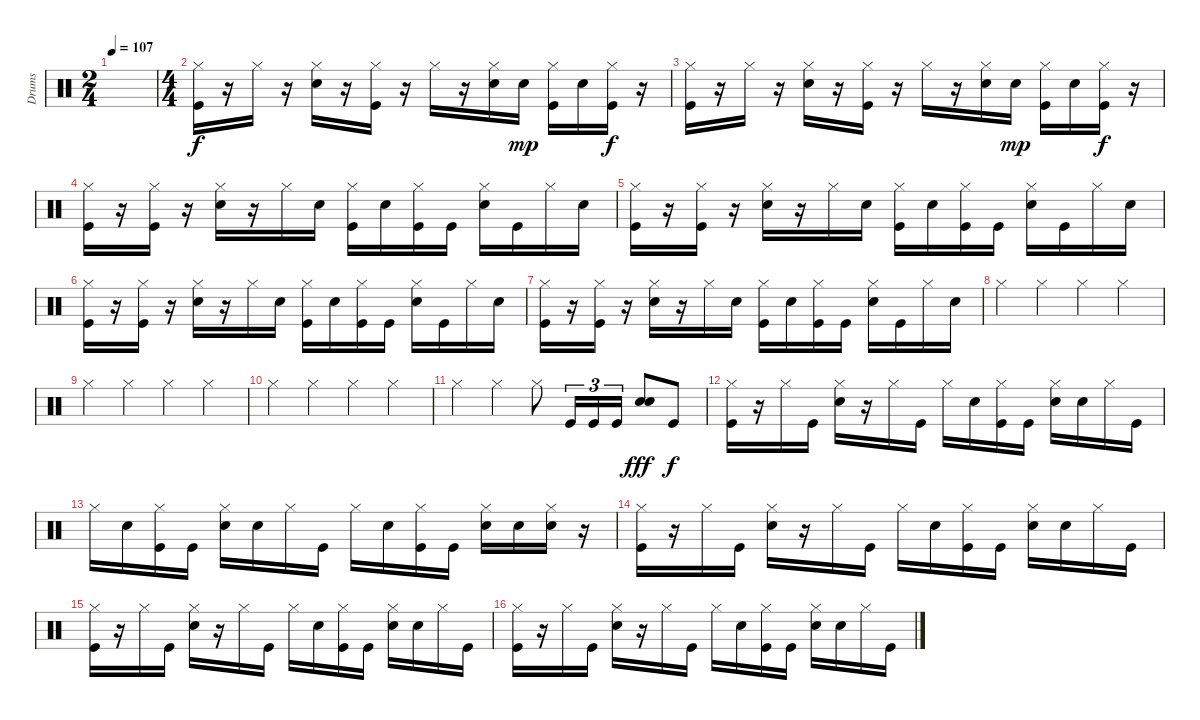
\track ("Drums" "Drums") {instrument percussion}
\staff {score}
\articulation defaults
\ts (2 4)
\tempo 107
\clef neutral
\ks c
|
\ts (4 4)
("Hi-Hat (closed)" "Kick (hit)").16 r.16 "Hi-Hat (closed)".16 r.16 ("Hi-Hat (closed)" "Snare (hit) 2").16 r.16 ("Hi-Hat (closed)" "Kick (hit)").16 r.16 "Hi-Hat (closed)".16 r.16 ("Hi-Hat (closed)" "Snare (hit) 2").16 "Snare (hit) 2".16{dy mp} ("Hi-Hat (closed)" "Kick (hit)").16 "Snare (hit) 2".16 ("Hi-Hat (closed)" "Kick (hit)").16{dy f} r.16 |
("Hi-Hat (closed)" "Kick (hit)").16 r.16 "Hi-Hat (closed)".16 r.16 ("Hi-Hat (closed)" "Snare (hit) 2").16 r.16 ("Hi-Hat (closed)" "Kick (hit)").16 r.16 "Hi-Hat (closed)".16 r.16 ("Hi-Hat (closed)" "Snare (hit) 2").16 "Snare (hit) 2".16{dy mp} ("Hi-Hat (closed)" "Kick (hit)").16 "Snare (hit) 2".16 ("Hi-Hat (closed)" "Kick (hit)").16{dy f} r.16 |
("Hi-Hat (closed)" "Kick (hit)").16 r.16 ("Hi-Hat (closed)" "Kick (hit)").16 r.16 ("Hi-Hat (closed)" "Snare (hit) 2").16 r.16 "Hi-Hat (closed)".16 "Snare (hit) 2".16 ("Hi-Hat (closed)" "Kick (hit)").16 "Snare (hit) 2".16 ("Hi-Hat (closed)" "Kick (hit)").16 "Kick (hit)".16 ("Hi-Hat (closed)" "Snare (hit) 2").16 "Kick (hit)".16 "Hi-Hat (closed)".16 "Snare (hit) 2".16 |
("Hi-Hat (closed)" "Kick (hit)").16 r.16 ("Hi-Hat (closed)" "Kick (hit)").16 r.16 ("Hi-Hat (closed)" "Snare (hit) 2").16 r.16 "Hi-Hat (closed)".16 "Snare (hit) 2".16 ("Hi-Hat (closed)" "Kick (hit)").16 "Snare (hit) 2".16 ("Hi-Hat (closed)" "Kick (hit)").16 "Kick (hit)".16 ("Hi-Hat (closed)" "Snare (hit) 2").16 "Kick (hit)".16 "Hi-Hat (closed)".16 "Snare (hit) 2".16 |
("Hi-Hat (closed)" "Kick (hit)").16 r.16 ("Hi-Hat (closed)" "Kick (hit)").16 r.16 ("Hi-Hat (closed)" "Snare (hit) 2").16 r.16 "Hi-Hat (closed)".16 "Snare (hit) 2".16 ("Hi-Hat (closed)" "Kick (hit)").16 "Snare (hit) 2".16 ("Hi-Hat (closed)" "Kick (hit)").16 "Kick (hit)".16 ("Hi-Hat (closed)" "Snare (hit) 2").16 "Kick (hit)".16 "Hi-Hat (closed)".16 "Snare (hit) 2".16 |
("Hi-Hat (closed)" "Kick (hit)").16 r.16 ("Hi-Hat (closed)" "Kick (hit)").16 r.16 ("Hi-Hat (closed)" "Snare (hit) 2").16 r.16 "Hi-Hat (closed)".16 "Snare (hit) 2".16 ("Hi-Hat (closed)" "Kick (hit)").16 "Snare (hit) 2".16 ("Hi-Hat (closed)" "Kick (hit)").16 "Kick (hit)".16 ("Hi-Hat (closed)" "Snare (hit) 2").16 "Kick (hit)".16 "Hi-Hat (closed)".16 "Snare (hit) 2".16 |
"Hi-Hat (closed)".4 "Hi-Hat (closed)".4 "Hi-Hat (closed)".4 "Hi-Hat (closed)".4 |
"Hi-Hat (closed)".4 "Hi-Hat (closed)".4 "Hi-Hat (closed)".4 "Hi-Hat (closed)".4 |
"Hi-Hat (closed)".4 "Hi-Hat (closed)".4 "Hi-Hat (closed)".4 "Hi-Hat (closed)".4 |
"Hi-Hat (closed)".4 "Hi-Hat (closed)".4 "Hi-Hat (closed)".8 "Kick (hit)".16{tu (3 2)} "Kick (hit)".16{tu (3 2)} "Kick (hit)".16{tu (3 2)} ("Snare (hit) 2" "Snare (hit) 2").8{dy fff} "Kick (hit)".8{dy f} |
("Hi-Hat (closed)" "Kick (hit)").16 r.16 "Hi-Hat (closed)".16 "Kick (hit)".16 ("Hi-Hat (closed)" "Snare (hit) 2").16 r.16 "Hi-Hat (closed)".16 "Kick (hit)".16 "Hi-Hat (closed)".16 "Snare (hit) 2".16 ("Hi-Hat (closed)" "Kick (hit)").16 "Kick (hit)".16 ("Hi-Hat (closed)" "Snare (hit) 2").16 "Snare (hit) 2".16 "Hi-Hat (closed)".16 "Kick (hit)".16 |
"Hi-Hat (closed)".16 "Snare (hit) 2".16 ("Hi-Hat (closed)" "Kick (hit)").16 "Kick (hit)".16 ("Hi-Hat (closed)" "Snare (hit) 2").16 "Snare (hit) 2".16 "Hi-Hat (closed)".16 "Kick (hit)".16 "Hi-Hat (closed)".16 "Snare (hit) 2".16 ("Hi-Hat (closed)" "Kick (hit)").16 "Kick (hit)".16 ("Hi-Hat (closed)" "Snare (hit) 2").16 "Snare (hit) 2".16 ("Hi-Hat (closed)" "Snare (hit) 2").16 r.16 |
("Hi-Hat (closed)" "Kick (hit)").16 r.16 "Hi-Hat (closed)".16 "Kick (hit)".16 ("Hi-Hat (closed)" "Snare (hit) 2").16 r.16 "Hi-Hat (closed)".16 "Kick (hit)".16 "Hi-Hat (closed)".16 "Snare (hit) 2".16 ("Hi-Hat (closed)" "Kick (hit)").16 "Kick (hit)".16 ("Hi-Hat (closed)" "Snare (hit) 2").16 "Snare (hit) 2".16 "Hi-Hat (closed)".16 "Kick (hit)".16 |
("Hi-Hat (closed)" "Kick (hit)").16 r.16 "Hi-Hat (closed)".16 "Kick (hit)".16 ("Hi-Hat (closed)" "Snare (hit) 2").16 r.16 "Hi-Hat (closed)".16 "Kick (hit)".16 "Hi-Hat (closed)".16 "Snare (hit) 2".16 ("Hi-Hat (closed)" "Kick (hit)").16 "Kick (hit)".16 ("Hi-Hat (closed)" "Snare (hit) 2").16 "Snare (hit) 2".16 "Hi-Hat (closed)".16 "Kick (hit)".16 |
("Hi-Hat (closed)" "Kick (hit)").16 r.16 "Hi-Hat (closed)".16 "Kick (hit)".16 ("Hi-Hat (closed)" "Snare (hit) 2").16 r.16 "Hi-Hat (closed)".16 "Kick (hit)".16 "Hi-Hat (closed)".16 "Snare (hit) 2".16 ("Hi-Hat (closed)" "Kick (hit)").16 "Kick (hit)".16 ("Hi-Hat (closed)" "Snare (hit) 2").16 "Snare (hit) 2".16 "Hi-Hat (closed)".16 "Kick (hit)".16
